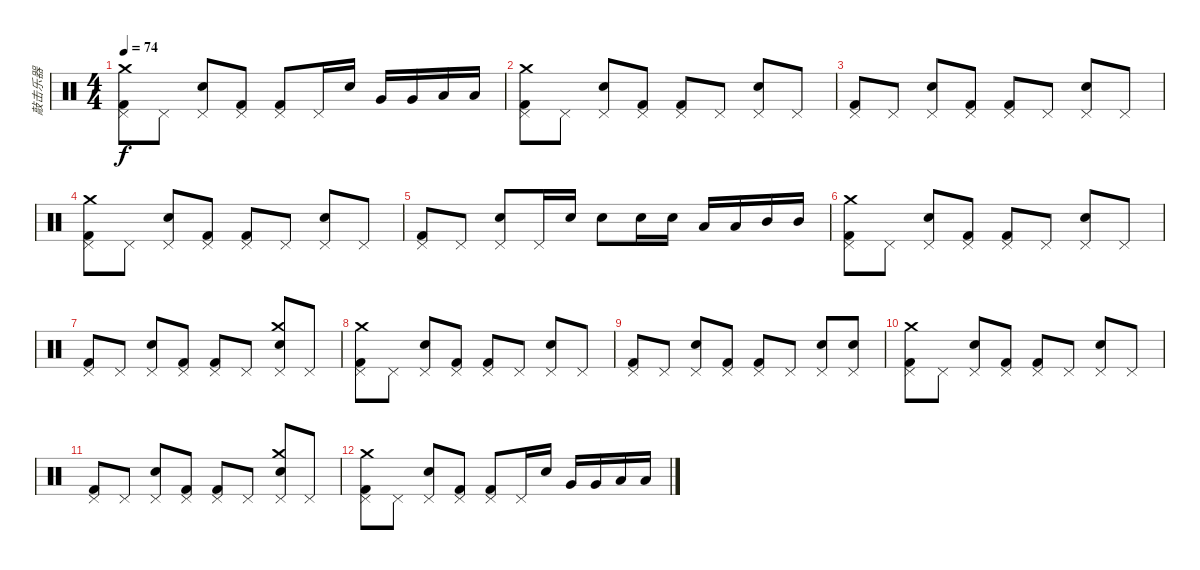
\track ("敲击乐器" "敲击乐器") {instrument percussion}
\staff {score}
\articulation defaults
\ts (4 4)
\tempo 74
\clef neutral
\ks c
("Pedal Hi-Hat (hit)" "Kick (hit) 2" "Crash medium (hit)").8{dy f} "Pedal Hi-Hat (hit)".8 ("Pedal Hi-Hat (hit)" "Electric Snare (hit)").8 ("Pedal Hi-Hat (hit)" "Kick (hit) 2").8 ("Pedal Hi-Hat (hit)" "Kick (hit) 2").8 "Pedal Hi-Hat (hit)".16 "Electric Snare (hit)".16 "Very Low Tom (hit)".16 "Very Low Tom (hit)".16 "Low Tom (hit)".16 "Low Tom (hit)".16 |
("Pedal Hi-Hat (hit)" "Kick (hit) 2" "Crash medium (hit)").8 "Pedal Hi-Hat (hit)".8 ("Pedal Hi-Hat (hit)" "Electric Snare (hit)").8 ("Pedal Hi-Hat (hit)" "Kick (hit) 2").8 ("Pedal Hi-Hat (hit)" "Kick (hit) 2").8 "Pedal Hi-Hat (hit)".8 ("Pedal Hi-Hat (hit)" "Electric Snare (hit)").8 "Pedal Hi-Hat (hit)".8 |
("Pedal Hi-Hat (hit)" "Kick (hit) 2").8 "Pedal Hi-Hat (hit)".8 ("Pedal Hi-Hat (hit)" "Electric Snare (hit)").8 ("Pedal Hi-Hat (hit)" "Kick (hit) 2").8 ("Pedal Hi-Hat (hit)" "Kick (hit) 2").8 "Pedal Hi-Hat (hit)".8 ("Pedal Hi-Hat (hit)" "Electric Snare (hit)").8 "Pedal Hi-Hat (hit)".8 |
("Pedal Hi-Hat (hit)" "Kick (hit) 2" "Crash medium (hit)").8 "Pedal Hi-Hat (hit)".8 ("Pedal Hi-Hat (hit)" "Electric Snare (hit)").8 ("Pedal Hi-Hat (hit)" "Kick (hit) 2").8 ("Pedal Hi-Hat (hit)" "Kick (hit) 2").8 "Pedal Hi-Hat (hit)".8 ("Pedal Hi-Hat (hit)" "Electric Snare (hit)").8 "Pedal Hi-Hat (hit)".8 |
("Pedal Hi-Hat (hit)" "Kick (hit) 2").8 "Pedal Hi-Hat (hit)".8 ("Pedal Hi-Hat (hit)" "Electric Snare (hit)").8 "Pedal Hi-Hat (hit)".16 "Electric Snare (hit)".16 "Electric Snare (hit)".8 "Electric Snare (hit)".16 "Electric Snare (hit)".16 "Low Tom (hit)".16 "Low Tom (hit)".16 "Mid Tom (hit)".16 "Mid Tom (hit)".16 |
("Pedal Hi-Hat (hit)" "Kick (hit) 2" "Crash medium (hit)").8 "Pedal Hi-Hat (hit)".8 ("Pedal Hi-Hat (hit)" "Electric Snare (hit)").8 ("Pedal Hi-Hat (hit)" "Kick (hit) 2").8 ("Pedal Hi-Hat (hit)" "Kick (hit) 2").8 "Pedal Hi-Hat (hit)".8 ("Pedal Hi-Hat (hit)" "Electric Snare (hit)").8 "Pedal Hi-Hat (hit)".8 |
("Pedal Hi-Hat (hit)" "Kick (hit) 2").8 "Pedal Hi-Hat (hit)".8 ("Pedal Hi-Hat (hit)" "Electric Snare (hit)").8 ("Pedal Hi-Hat (hit)" "Kick (hit) 2").8 ("Pedal Hi-Hat (hit)" "Kick (hit) 2").8 "Pedal Hi-Hat (hit)".8 ("Pedal Hi-Hat (hit)" "Electric Snare (hit)" "Crash medium (hit)").8 "Pedal Hi-Hat (hit)".8 |
("Pedal Hi-Hat (hit)" "Kick (hit) 2" "Crash medium (hit)").8 "Pedal Hi-Hat (hit)".8 ("Pedal Hi-Hat (hit)" "Electric Snare (hit)").8 ("Pedal Hi-Hat (hit)" "Kick (hit) 2").8 ("Pedal Hi-Hat (hit)" "Kick (hit) 2").8 "Pedal Hi-Hat (hit)".8 ("Pedal Hi-Hat (hit)" "Electric Snare (hit)").8 "Pedal Hi-Hat (hit)".8 |
("Pedal Hi-Hat (hit)" "Kick (hit) 2").8 "Pedal Hi-Hat (hit)".8 ("Pedal Hi-Hat (hit)" "Electric Snare (hit)").8 ("Pedal Hi-Hat (hit)" "Kick (hit) 2").8 ("Pedal Hi-Hat (hit)" "Kick (hit) 2").8 "Pedal Hi-Hat (hit)".8 ("Pedal Hi-Hat (hit)" "Electric Snare (hit)").8 ("Pedal Hi-Hat (hit)" "Electric Snare (hit)").8 |
("Pedal Hi-Hat (hit)" "Kick (hit) 2" "Crash medium (hit)").8 "Pedal Hi-Hat (hit)".8 ("Pedal Hi-Hat (hit)" "Electric Snare (hit)").8 ("Pedal Hi-Hat (hit)" "Kick (hit) 2").8 ("Pedal Hi-Hat (hit)" "Kick (hit) 2").8 "Pedal Hi-Hat (hit)".8 ("Pedal Hi-Hat (hit)" "Electric Snare (hit)").8 "Pedal Hi-Hat (hit)".8 |
("Pedal Hi-Hat (hit)" "Kick (hit) 2").8 "Pedal Hi-Hat (hit)".8 ("Pedal Hi-Hat (hit)" "Electric Snare (hit)").8 ("Pedal Hi-Hat (hit)" "Kick (hit) 2").8 ("Pedal Hi-Hat (hit)" "Kick (hit) 2").8 "Pedal Hi-Hat (hit)".8 ("Pedal Hi-Hat (hit)" "Electric Snare (hit)" "Crash medium (hit)").8 "Pedal Hi-Hat (hit)".8 |
("Pedal Hi-Hat (hit)" "Kick (hit) 2" "Crash medium (hit)").8 "Pedal Hi-Hat (hit)".8 ("Pedal Hi-Hat (hit)" "Electric Snare (hit)").8 ("Pedal Hi-Hat (hit)" "Kick (hit) 2").8 ("Pedal Hi-Hat (hit)" "Kick (hit) 2").8 "Pedal Hi-Hat (hit)".16 "Electric Snare (hit)".16 "Very Low Tom (hit)".16 "Very Low Tom (hit)".16 "Low Tom (hit)".16 "Low Tom (hit)".16
